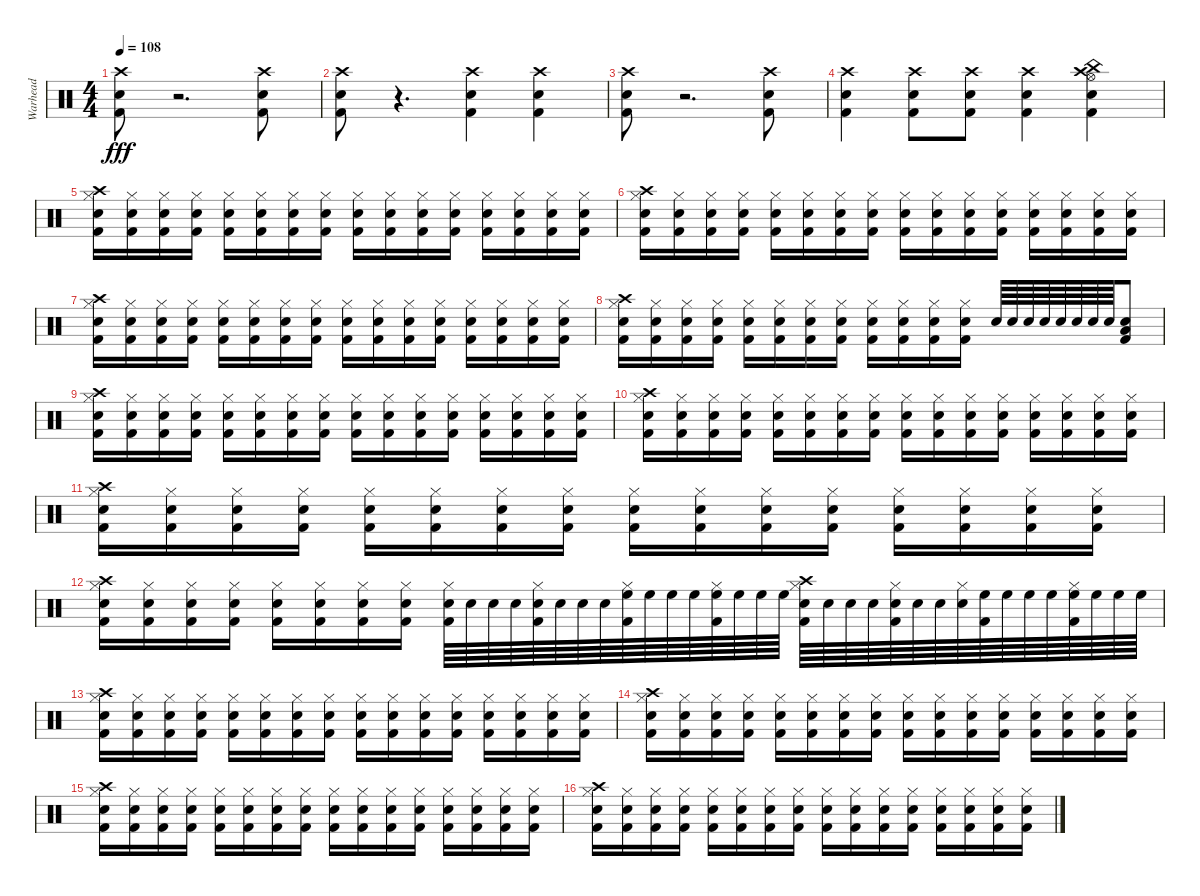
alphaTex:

\track ("Warhead" "Warhead") {instrument percussion}
\staff {score}
\articulation defaults
\ts (4 4)
\tempo 108
\clef neutral
\ks c
("Kick (hit) 2" "Electric Snare (hit)" "Crash high (hit)").8{dy fff} r.2{d} ("Kick (hit) 2" "Electric Snare (hit)" "Crash high (hit)").8 |
("Kick (hit) 2" "Electric Snare (hit)" "Crash high (hit)").8 r.4{d} ("Kick (hit) 2" "Electric Snare (hit)" "Crash high (hit)").4 ("Kick (hit) 2" "Electric Snare (hit)" "Crash high (hit)").4 |
("Kick (hit) 2" "Electric Snare (hit)" "Crash high (hit)").8 r.2{d} ("Kick (hit) 2" "Electric Snare (hit)" "Crash high (hit)").8 |
("Kick (hit) 2" "Electric Snare (hit)" "Crash high (hit)").4 ("Kick (hit) 2" "Electric Snare (hit)" "Crash high (hit)").8 ("Kick (hit) 2" "Electric Snare (hit)" "Crash high (hit)").8 ("Kick (hit) 2" "Electric Snare (hit)" "Crash high (hit)").4 ("Kick (hit) 2" "Electric Snare (hit)" "Crash high (hit)" "Hi-Hat (open)" "China (hit)").4 |
("Kick (hit) 2" "Electric Snare (hit)" "Crash high (hit)" "Hi-Hat (closed)").16 ("Kick (hit) 2" "Electric Snare (hit)" "Hi-Hat (closed)").16 ("Kick (hit) 2" "Electric Snare (hit)" "Hi-Hat (closed)").16 ("Kick (hit) 2" "Electric Snare (hit)" "Hi-Hat (closed)").16 ("Kick (hit) 2" "Electric Snare (hit)" "Hi-Hat (closed)").16 ("Kick (hit) 2" "Electric Snare (hit)" "Hi-Hat (closed)").16 ("Kick (hit) 2" "Electric Snare (hit)" "Hi-Hat (closed)").16 ("Kick (hit) 2" "Electric Snare (hit)" "Hi-Hat (closed)").16 ("Kick (hit) 2" "Electric Snare (hit)" "Hi-Hat (closed)").16 ("Kick (hit) 2" "Electric Snare (hit)" "Hi-Hat (closed)").16 ("Kick (hit) 2" "Electric Snare (hit)" "Hi-Hat (closed)").16 ("Kick (hit) 2" "Electric Snare (hit)" "Hi-Hat (closed)").16 ("Kick (hit) 2" "Electric Snare (hit)" "Hi-Hat (closed)").16 ("Kick (hit) 2" "Electric Snare (hit)" "Hi-Hat (closed)").16 ("Kick (hit) 2" "Electric Snare (hit)" "Hi-Hat (closed)").16 ("Kick (hit) 2" "Electric Snare (hit)" "Hi-Hat (closed)").16 |
("Kick (hit) 2" "Electric Snare (hit)" "Crash high (hit)" "Hi-Hat (closed)").16 ("Kick (hit) 2" "Electric Snare (hit)" "Hi-Hat (closed)").16 ("Kick (hit) 2" "Electric Snare (hit)" "Hi-Hat (closed)").16 ("Kick (hit) 2" "Electric Snare (hit)" "Hi-Hat (closed)").16 ("Kick (hit) 2" "Electric Snare (hit)" "Hi-Hat (closed)").16 ("Kick (hit) 2" "Electric Snare (hit)" "Hi-Hat (closed)").16 ("Kick (hit) 2" "Electric Snare (hit)" "Hi-Hat (closed)").16 ("Kick (hit) 2" "Electric Snare (hit)" "Hi-Hat (closed)").16 ("Kick (hit) 2" "Electric Snare (hit)" "Hi-Hat (closed)").16 ("Kick (hit) 2" "Electric Snare (hit)" "Hi-Hat (closed)").16 ("Kick (hit) 2" "Electric Snare (hit)" "Hi-Hat (closed)").16 ("Kick (hit) 2" "Electric Snare (hit)" "Hi-Hat (closed)").16 ("Kick (hit) 2" "Electric Snare (hit)" "Hi-Hat (closed)").16 ("Kick (hit) 2" "Electric Snare (hit)" "Hi-Hat (closed)").16 ("Kick (hit) 2" "Electric Snare (hit)" "Hi-Hat (closed)").16 ("Kick (hit) 2" "Electric Snare (hit)" "Hi-Hat (closed)").16 |
("Kick (hit) 2" "Electric Snare (hit)" "Crash high (hit)" "Hi-Hat (closed)").16 ("Kick (hit) 2" "Electric Snare (hit)" "Hi-Hat (closed)").16 ("Kick (hit) 2" "Electric Snare (hit)" "Hi-Hat (closed)").16 ("Kick (hit) 2" "Electric Snare (hit)" "Hi-Hat (closed)").16 ("Kick (hit) 2" "Electric Snare (hit)" "Hi-Hat (closed)").16 ("Kick (hit) 2" "Electric Snare (hit)" "Hi-Hat (closed)").16 ("Kick (hit) 2" "Electric Snare (hit)" "Hi-Hat (closed)").16 ("Kick (hit) 2" "Electric Snare (hit)" "Hi-Hat (closed)").16 ("Kick (hit) 2" "Electric Snare (hit)" "Hi-Hat (closed)").16 ("Kick (hit) 2" "Electric Snare (hit)" "Hi-Hat (closed)").16 ("Kick (hit) 2" "Electric Snare (hit)" "Hi-Hat (closed)").16 ("Kick (hit) 2" "Electric Snare (hit)" "Hi-Hat (closed)").16 ("Kick (hit) 2" "Electric Snare (hit)" "Hi-Hat (closed)").16 ("Kick (hit) 2" "Electric Snare (hit)" "Hi-Hat (closed)").16 ("Kick (hit) 2" "Electric Snare (hit)" "Hi-Hat (closed)").16 ("Kick (hit) 2" "Electric Snare (hit)" "Hi-Hat (closed)").16 |
("Kick (hit) 2" "Electric Snare (hit)" "Crash high (hit)" "Hi-Hat (closed)").16 ("Kick (hit) 2" "Electric Snare (hit)" "Hi-Hat (closed)").16 ("Kick (hit) 2" "Electric Snare (hit)" "Hi-Hat (closed)").16 ("Kick (hit) 2" "Electric Snare (hit)" "Hi-Hat (closed)").16 ("Kick (hit) 2" "Electric Snare (hit)" "Hi-Hat (closed)").16 ("Kick (hit) 2" "Electric Snare (hit)" "Hi-Hat (closed)").16 ("Kick (hit) 2" "Electric Snare (hit)" "Hi-Hat (closed)").16 ("Kick (hit) 2" "Electric Snare (hit)" "Hi-Hat (closed)").16 ("Kick (hit) 2" "Electric Snare (hit)" "Hi-Hat (closed)").16 ("Kick (hit) 2" "Electric Snare (hit)" "Hi-Hat (closed)").16 ("Kick (hit) 2" "Electric Snare (hit)" "Hi-Hat (closed)").16 ("Kick (hit) 2" "Electric Snare (hit)" "Hi-Hat (closed)").16 "Electric Snare (hit)".64 "Electric Snare (hit)".64 "Electric Snare (hit)".64 "Electric Snare (hit)".64 "Electric Snare (hit)".64 "Electric Snare (hit)".64 "Electric Snare (hit)".64 "Electric Snare (hit)".64 ("Kick (hit) 2" "Snare (hit) 2" "Low Tom (hit)").8 |
("Kick (hit) 2" "Electric Snare (hit)" "Crash high (hit)" "Hi-Hat (closed)").16 ("Kick (hit) 2" "Electric Snare (hit)" "Hi-Hat (closed)").16 ("Kick (hit) 2" "Electric Snare (hit)" "Hi-Hat (closed)").16 ("Kick (hit) 2" "Electric Snare (hit)" "Hi-Hat (closed)").16 ("Kick (hit) 2" "Electric Snare (hit)" "Hi-Hat (closed)").16 ("Kick (hit) 2" "Electric Snare (hit)" "Hi-Hat (closed)").16 ("Kick (hit) 2" "Electric Snare (hit)" "Hi-Hat (closed)").16 ("Kick (hit) 2" "Electric Snare (hit)" "Hi-Hat (closed)").16 ("Kick (hit) 2" "Electric Snare (hit)" "Hi-Hat (closed)").16 ("Kick (hit) 2" "Electric Snare (hit)" "Hi-Hat (closed)").16 ("Kick (hit) 2" "Electric Snare (hit)" "Hi-Hat (closed)").16 ("Kick (hit) 2" "Electric Snare (hit)" "Hi-Hat (closed)").16 ("Kick (hit) 2" "Electric Snare (hit)" "Hi-Hat (closed)").16 ("Kick (hit) 2" "Electric Snare (hit)" "Hi-Hat (closed)").16 ("Kick (hit) 2" "Electric Snare (hit)" "Hi-Hat (closed)").16 ("Kick (hit) 2" "Electric Snare (hit)" "Hi-Hat (closed)").16 |
("Kick (hit) 2" "Electric Snare (hit)" "Crash high (hit)" "Hi-Hat (closed)").16 ("Kick (hit) 2" "Electric Snare (hit)" "Hi-Hat (closed)").16 ("Kick (hit) 2" "Electric Snare (hit)" "Hi-Hat (closed)").16 ("Kick (hit) 2" "Electric Snare (hit)" "Hi-Hat (closed)").16 ("Kick (hit) 2" "Electric Snare (hit)" "Hi-Hat (closed)").16 ("Kick (hit) 2" "Electric Snare (hit)" "Hi-Hat (closed)").16 ("Kick (hit) 2" "Electric Snare (hit)" "Hi-Hat (closed)").16 ("Kick (hit) 2" "Electric Snare (hit)" "Hi-Hat (closed)").16 ("Kick (hit) 2" "Electric Snare (hit)" "Hi-Hat (closed)").16 ("Kick (hit) 2" "Electric Snare (hit)" "Hi-Hat (closed)").16 ("Kick (hit) 2" "Electric Snare (hit)" "Hi-Hat (closed)").16 ("Kick (hit) 2" "Electric Snare (hit)" "Hi-Hat (closed)").16 ("Kick (hit) 2" "Electric Snare (hit)" "Hi-Hat (closed)").16 ("Kick (hit) 2" "Electric Snare (hit)" "Hi-Hat (closed)").16 ("Kick (hit) 2" "Electric Snare (hit)" "Hi-Hat (closed)").16 ("Kick (hit) 2" "Electric Snare (hit)" "Hi-Hat (closed)").16 |
("Kick (hit) 2" "Electric Snare (hit)" "Crash high (hit)" "Hi-Hat (closed)").16 ("Kick (hit) 2" "Electric Snare (hit)" "Hi-Hat (closed)").16 ("Kick (hit) 2" "Electric Snare (hit)" "Hi-Hat (closed)").16 ("Kick (hit) 2" "Electric Snare (hit)" "Hi-Hat (closed)").16 ("Kick (hit) 2" "Electric Snare (hit)" "Hi-Hat (closed)").16 ("Kick (hit) 2" "Electric Snare (hit)" "Hi-Hat (closed)").16 ("Kick (hit) 2" "Electric Snare (hit)" "Hi-Hat (closed)").16 ("Kick (hit) 2" "Electric Snare (hit)" "Hi-Hat (closed)").16 ("Kick (hit) 2" "Electric Snare (hit)" "Hi-Hat (closed)").16 ("Kick (hit) 2" "Electric Snare (hit)" "Hi-Hat (closed)").16 ("Kick (hit) 2" "Electric Snare (hit)" "Hi-Hat (closed)").16 ("Kick (hit) 2" "Electric Snare (hit)" "Hi-Hat (closed)").16 ("Kick (hit) 2" "Electric Snare (hit)" "Hi-Hat (closed)").16 ("Kick (hit) 2" "Electric Snare (hit)" "Hi-Hat (closed)").16 ("Kick (hit) 2" "Electric Snare (hit)" "Hi-Hat (closed)").16 ("Kick (hit) 2" "Electric Snare (hit)" "Hi-Hat (closed)").16 |
("Kick (hit) 2" "Electric Snare (hit)" "Crash high (hit)" "Hi-Hat (closed)").16 ("Kick (hit) 2" "Electric Snare (hit)" "Hi-Hat (closed)").16 ("Kick (hit) 2" "Electric Snare (hit)" "Hi-Hat (closed)").16 ("Kick (hit) 2" "Electric Snare (hit)" "Hi-Hat (closed)").16 ("Kick (hit) 2" "Electric Snare (hit)" "Hi-Hat (closed)").16 ("Kick (hit) 2" "Electric Snare (hit)" "Hi-Hat (closed)").16 ("Kick (hit) 2" "Electric Snare (hit)" "Hi-Hat (closed)").16 ("Kick (hit) 2" "Electric Snare (hit)" "Hi-Hat (closed)").16 ("Kick (hit) 2" "Electric Snare (hit)" "Hi-Hat (closed)").64 "Electric Snare (hit)".64 "Electric Snare (hit)".64 "Electric Snare (hit)".64 ("Kick (hit) 2" "Electric Snare (hit)" "Hi-Hat (closed)").64 "Electric Snare (hit)".64 "Electric Snare (hit)".64 "Electric Snare (hit)".64 ("Kick (hit) 2" "High Floor Tom (hit)" "Hi-Hat (closed)").64 "High Floor Tom (hit)".64 "High Floor Tom (hit)".64 "High Floor Tom (hit)".64 ("Kick (hit) 2" "High Floor Tom (hit)" "Hi-Hat (closed)").64 "High Floor Tom (hit)".64 "High Floor Tom (hit)".64 "High Floor Tom (hit)".64 ("Kick (hit) 2" "Electric Snare (hit)" "Crash high (hit)" "Hi-Hat (closed)").64 "Electric Snare (hit)".64 "Electric Snare (hit)".64 "Electric Snare (hit)".64 ("Kick (hit) 2" "Electric Snare (hit)" "Hi-Hat (closed)").64 "Electric Snare (hit)".64 "Electric Snare (hit)".64 ("Electric Snare (hit)" "Hi-Hat (closed)").64 ("Kick (hit) 2" "High Floor Tom (hit)").64 "High Floor Tom (hit)".64 "High Floor Tom (hit)".64 "High Floor Tom (hit)".64 ("Kick (hit) 2" "High Floor Tom (hit)" "Hi-Hat (closed)").64 "High Floor Tom (hit)".64 "High Floor Tom (hit)".64 "High Floor Tom (hit)".64 |
("Kick (hit) 2" "Electric Snare (hit)" "Crash high (hit)" "Hi-Hat (closed)").16 ("Kick (hit) 2" "Electric Snare (hit)" "Hi-Hat (closed)").16 ("Kick (hit) 2" "Electric Snare (hit)" "Hi-Hat (closed)").16 ("Kick (hit) 2" "Electric Snare (hit)" "Hi-Hat (closed)").16 ("Kick (hit) 2" "Electric Snare (hit)" "Hi-Hat (closed)").16 ("Kick (hit) 2" "Electric Snare (hit)" "Hi-Hat (closed)").16 ("Kick (hit) 2" "Electric Snare (hit)" "Hi-Hat (closed)").16 ("Kick (hit) 2" "Electric Snare (hit)" "Hi-Hat (closed)").16 ("Kick (hit) 2" "Electric Snare (hit)" "Hi-Hat (closed)").16 ("Kick (hit) 2" "Electric Snare (hit)" "Hi-Hat (closed)").16 ("Kick (hit) 2" "Electric Snare (hit)" "Hi-Hat (closed)").16 ("Kick (hit) 2" "Electric Snare (hit)" "Hi-Hat (closed)").16 ("Kick (hit) 2" "Electric Snare (hit)" "Hi-Hat (closed)").16 ("Kick (hit) 2" "Electric Snare (hit)" "Hi-Hat (closed)").16 ("Kick (hit) 2" "Electric Snare (hit)" "Hi-Hat (closed)").16 ("Kick (hit) 2" "Electric Snare (hit)" "Hi-Hat (closed)").16 |
("Kick (hit) 2" "Electric Snare (hit)" "Crash high (hit)" "Hi-Hat (closed)").16 ("Kick (hit) 2" "Electric Snare (hit)" "Hi-Hat (closed)").16 ("Kick (hit) 2" "Electric Snare (hit)" "Hi-Hat (closed)").16 ("Kick (hit) 2" "Electric Snare (hit)" "Hi-Hat (closed)").16 ("Kick (hit) 2" "Electric Snare (hit)" "Hi-Hat (closed)").16 ("Kick (hit) 2" "Electric Snare (hit)" "Hi-Hat (closed)").16 ("Kick (hit) 2" "Electric Snare (hit)" "Hi-Hat (closed)").16 ("Kick (hit) 2" "Electric Snare (hit)" "Hi-Hat (closed)").16 ("Kick (hit) 2" "Electric Snare (hit)" "Hi-Hat (closed)").16 ("Kick (hit) 2" "Electric Snare (hit)" "Hi-Hat (closed)").16 ("Kick (hit) 2" "Electric Snare (hit)" "Hi-Hat (closed)").16 ("Kick (hit) 2" "Electric Snare (hit)" "Hi-Hat (closed)").16 ("Kick (hit) 2" "Electric Snare (hit)" "Hi-Hat (closed)").16 ("Kick (hit) 2" "Electric Snare (hit)" "Hi-Hat (closed)").16 ("Kick (hit) 2" "Electric Snare (hit)" "Hi-Hat (closed)").16 ("Kick (hit) 2" "Electric Snare (hit)" "Hi-Hat (closed)").16 |
("Kick (hit) 2" "Electric Snare (hit)" "Crash high (hit)" "Hi-Hat (closed)").16 ("Kick (hit) 2" "Electric Snare (hit)" "Hi-Hat (closed)").16 ("Kick (hit) 2" "Electric Snare (hit)" "Hi-Hat (closed)").16 ("Kick (hit) 2" "Electric Snare (hit)" "Hi-Hat (closed)").16 ("Kick (hit) 2" "Electric Snare (hit)" "Hi-Hat (closed)").16 ("Kick (hit) 2" "Electric Snare (hit)" "Hi-Hat (closed)").16 ("Kick (hit) 2" "Electric Snare (hit)" "Hi-Hat (closed)").16 ("Kick (hit) 2" "Electric Snare (hit)" "Hi-Hat (closed)").16 ("Kick (hit) 2" "Electric Snare (hit)" "Hi-Hat (closed)").16 ("Kick (hit) 2" "Electric Snare (hit)" "Hi-Hat (closed)").16 ("Kick (hit) 2" "Electric Snare (hit)" "Hi-Hat (closed)").16 ("Kick (hit) 2" "Electric Snare (hit)" "Hi-Hat (closed)").16 ("Kick (hit) 2" "Electric Snare (hit)" "Hi-Hat (closed)").16 ("Kick (hit) 2" "Electric Snare (hit)" "Hi-Hat (closed)").16 ("Kick (hit) 2" "Electric Snare (hit)" "Hi-Hat (closed)").16 ("Kick (hit) 2" "Electric Snare (hit)" "Hi-Hat (closed)").16 |
("Kick (hit) 2" "Electric Snare (hit)" "Crash high (hit)" "Hi-Hat (closed)").16 ("Kick (hit) 2" "Electric Snare (hit)" "Hi-Hat (closed)").16 ("Kick (hit) 2" "Electric Snare (hit)" "Hi-Hat (closed)").16 ("Kick (hit) 2" "Electric Snare (hit)" "Hi-Hat (closed)").16 ("Kick (hit) 2" "Electric Snare (hit)" "Hi-Hat (closed)").16 ("Kick (hit) 2" "Electric Snare (hit)" "Hi-Hat (closed)").16 ("Kick (hit) 2" "Electric Snare (hit)" "Hi-Hat (closed)").16 ("Kick (hit) 2" "Electric Snare (hit)" "Hi-Hat (closed)").16 ("Kick (hit) 2" "Electric Snare (hit)" "Hi-Hat (closed)").16 ("Kick (hit) 2" "Electric Snare (hit)" "Hi-Hat (closed)").16 ("Kick (hit) 2" "Electric Snare (hit)" "Hi-Hat (closed)").16 ("Kick (hit) 2" "Electric Snare (hit)" "Hi-Hat (closed)").16 ("Kick (hit) 2" "Electric Snare (hit)" "Hi-Hat (closed)").16 ("Kick (hit) 2" "Electric Snare (hit)" "Hi-Hat (closed)").16 ("Kick (hit) 2" "Electric Snare (hit)" "Hi-Hat (closed)").16 ("Kick (hit) 2" "Electric Snare (hit)" "Hi-Hat (closed)").16
